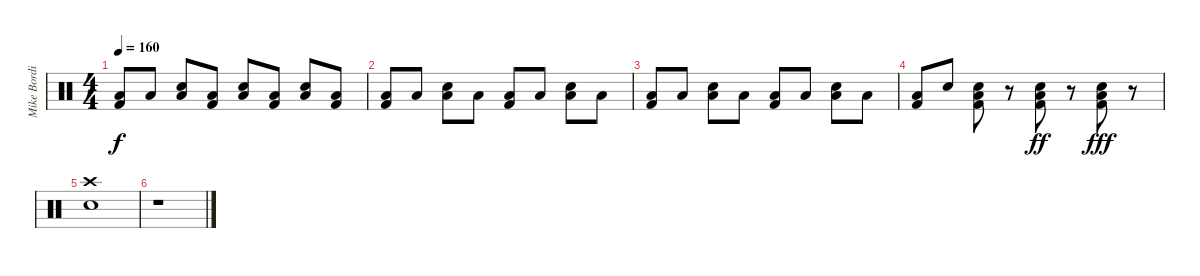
\track ("Mike Bordin - Drums" "Mike Bordi") {instrument percussion}
\staff {score}
\articulation defaults
\ts (4 4)
\tempo 160
\clef neutral
\ks c
("Low Floor Tom (hit)" "Kick (hit) 2").8{dy f} "Low Floor Tom (hit)".8 ("Snare (hit) 2" "Low Floor Tom (hit)").8 ("Low Floor Tom (hit)" "Kick (hit) 2").8 ("Snare (hit) 2" "Low Floor Tom (hit)").8 ("Low Floor Tom (hit)" "Kick (hit) 2").8 ("Snare (hit) 2" "Low Floor Tom (hit)").8 ("Low Floor Tom (hit)" "Kick (hit) 2").8 |
("Low Floor Tom (hit)" "Kick (hit) 2").8 "Low Floor Tom (hit)".8 ("Snare (hit) 2" "Low Floor Tom (hit)").8 "Low Floor Tom (hit)".8 ("Low Floor Tom (hit)" "Kick (hit) 2").8 "Low Floor Tom (hit)".8 ("Snare (hit) 2" "Low Floor Tom (hit)").8 "Low Floor Tom (hit)".8 |
("Low Floor Tom (hit)" "Kick (hit) 2").8 "Low Floor Tom (hit)".8 ("Snare (hit) 2" "Low Floor Tom (hit)").8 "Low Floor Tom (hit)".8 ("Low Floor Tom (hit)" "Kick (hit) 2").8 "Low Floor Tom (hit)".8 ("Snare (hit) 2" "Low Floor Tom (hit)").8 "Low Floor Tom (hit)".8 |
("Low Floor Tom (hit)" "Kick (hit) 2").8 "Snare (hit) 2".8 ("Snare (hit) 2" "Low Floor Tom (hit)" "Kick (hit) 2").8 r.8 ("Snare (hit) 2" "Low Floor Tom (hit)" "Kick (hit) 2").8{dy ff} r.8 ("Snare (hit) 2" "Low Floor Tom (hit)" "Kick (hit) 2").8{dy fff} r.8 |
("Crash high (hit)" "Snare (hit) 2").1 |
r.1
